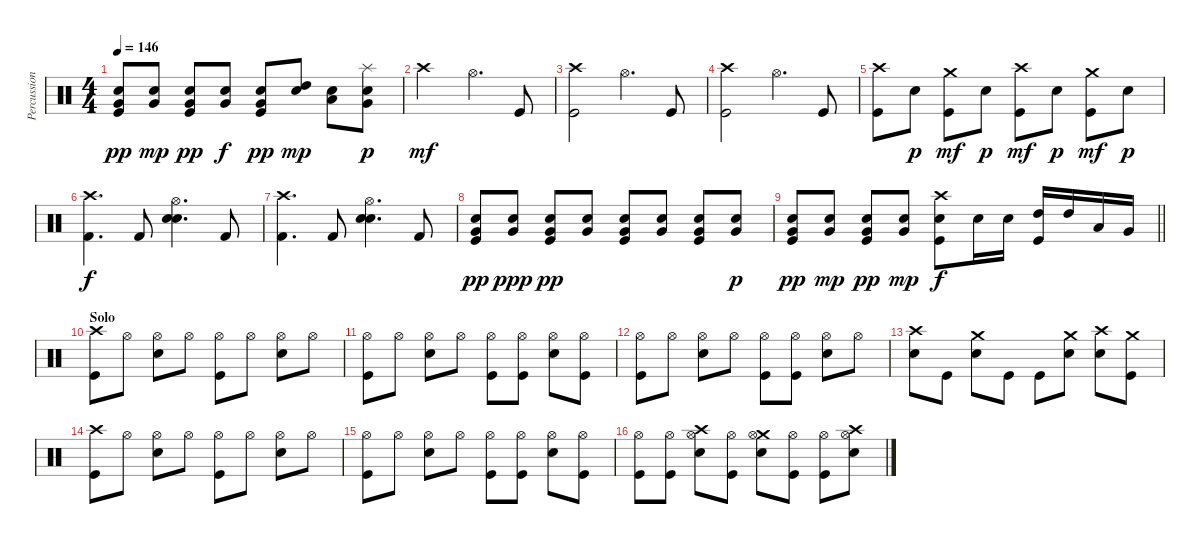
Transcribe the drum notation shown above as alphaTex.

\track ("Percussion" "Percussion") {instrument percussion}
\staff {score}
\articulation defaults
\ts (4 4)
\tempo 146
\clef neutral
\ks c
("Snare (hit) 2" "Very Low Tom (hit)" "Kick (hit)").8{dy pp} ("Snare (hit) 2" "Very Low Tom (hit)").8{dy mp} ("Snare (hit) 2" "Very Low Tom (hit)" "Kick (hit)").8{dy pp} ("Snare (hit) 2" "Very Low Tom (hit)").8{dy f} ("Snare (hit) 2" "Very Low Tom (hit)" "Kick (hit)").8{dy pp} ("Snare (hit) 2" "High Tom (hit)").8{dy mp} ("Snare (hit) 2" "Low Tom (hit)").8 ("Splash (hit)" "Snare (hit) 2" "Very Low Tom (hit)").8{dy p} |
"Crash high (hit)".2{dy mf} "Hi-Hat (open)".4{d} "Kick (hit)".8 |
("Crash high (hit)" "Kick (hit)").2 "Hi-Hat (open)".4{d} "Kick (hit)".8 |
("Crash high (hit)" "Kick (hit)").2 "Hi-Hat (open)".4{d} "Kick (hit)".8 |
("Crash high (hit)" "Kick (hit)").8 "Snare (hit) 2".8{dy p} ("Crash medium (hit)" "Kick (hit)").8{dy mf} "Snare (hit) 2".8{dy p} ("Crash high (hit)" "Kick (hit)").8{dy mf} "Snare (hit) 2".8{dy p} ("Crash medium (hit)" "Kick (hit)").8{dy mf} "Snare (hit) 2".8{dy p} |
("Crash high (hit)" "Kick (hit) 2").4{d dy f} "Kick (hit) 2".8 ("Hi-Hat (open)" "Snare (hit) 2" "Hand Clap (hit)").4{d} "Kick (hit) 2".8 |
("Crash high (hit)" "Kick (hit) 2").4{d} "Kick (hit) 2".8 ("Hi-Hat (open)" "Snare (hit) 2" "Hand Clap (hit)").4{d} "Kick (hit) 2".8 |
("Snare (hit) 2" "Very Low Tom (hit)" "Kick (hit)").8{dy pp} ("Snare (hit) 2" "Very Low Tom (hit)").8{dy ppp} ("Snare (hit) 2" "Very Low Tom (hit)" "Kick (hit)").8{dy pp} ("Snare (hit) 2" "Very Low Tom (hit)").8 ("Snare (hit) 2" "Very Low Tom (hit)" "Kick (hit)").8 ("Snare (hit) 2" "Very Low Tom (hit)").8 ("Snare (hit) 2" "Very Low Tom (hit)" "Kick (hit)").8 ("Snare (hit) 2" "Very Low Tom (hit)").8{dy p} |
\barLineRight lightlight
("Snare (hit) 2" "Very Low Tom (hit)" "Kick (hit)").8{dy pp} ("Snare (hit) 2" "Very Low Tom (hit)").8{dy mp} ("Snare (hit) 2" "Very Low Tom (hit)" "Kick (hit)").8{dy pp} ("Snare (hit) 2" "Very Low Tom (hit)").8{dy mp} ("Crash high (hit)" "Snare (hit) 2" "Kick (hit)").8{dy f} "Snare (hit) 2".16 "Snare (hit) 2".16 ("High Tom (hit)" "Kick (hit)").16 "High Tom (hit)".16 "Low Tom (hit)".16 "Very Low Tom (hit)".16 |
\section ("" "Solo")
("Crash high (hit)" "Kick (hit)").8 "Hi-Hat (open)".8 ("Hi-Hat (open)" "Snare (hit) 2").8 "Hi-Hat (open)".8 ("Hi-Hat (open)" "Kick (hit)").8 "Hi-Hat (open)".8 ("Hi-Hat (open)" "Snare (hit) 2").8 "Hi-Hat (open)".8 |
("Hi-Hat (open)" "Kick (hit)").8 "Hi-Hat (open)".8 ("Hi-Hat (open)" "Snare (hit) 2").8 "Hi-Hat (open)".8 ("Hi-Hat (open)" "Kick (hit)").8 ("Hi-Hat (open)" "Kick (hit)").8 ("Hi-Hat (open)" "Snare (hit) 2").8 ("Hi-Hat (open)" "Kick (hit)").8 |
("Hi-Hat (open)" "Kick (hit)").8 "Hi-Hat (open)".8 ("Hi-Hat (open)" "Snare (hit) 2").8 "Hi-Hat (open)".8 ("Hi-Hat (open)" "Kick (hit)").8 ("Hi-Hat (open)" "Kick (hit)").8 ("Hi-Hat (open)" "Snare (hit) 2").8 "Hi-Hat (open)".8 |
("Crash high (hit)" "Snare (hit) 2").8 "Kick (hit)".8 ("Crash medium (hit)" "Snare (hit) 2").8 "Kick (hit)".8 "Kick (hit)".8 ("Crash medium (hit)" "Snare (hit) 2").8 ("Crash high (hit)" "Snare (hit) 2").8 ("Crash medium (hit)" "Kick (hit)").8 |
("Crash high (hit)" "Kick (hit)").8 "Hi-Hat (open)".8 ("Hi-Hat (open)" "Snare (hit) 2").8 "Hi-Hat (open)".8 ("Hi-Hat (open)" "Kick (hit)").8 "Hi-Hat (open)".8 ("Hi-Hat (open)" "Snare (hit) 2").8 "Hi-Hat (open)".8 |
("Hi-Hat (open)" "Kick (hit)").8 "Hi-Hat (open)".8 ("Hi-Hat (open)" "Snare (hit) 2").8 "Hi-Hat (open)".8 ("Hi-Hat (open)" "Kick (hit)").8 ("Hi-Hat (open)" "Kick (hit)").8 ("Hi-Hat (open)" "Snare (hit) 2").8 ("Hi-Hat (open)" "Kick (hit)").8 |
("Hi-Hat (open)" "Kick (hit)").8 ("Hi-Hat (open)" "Kick (hit)").8 ("Crash high (hit)" "Hi-Hat (open)" "Snare (hit) 2").8 ("Hi-Hat (open)" "Kick (hit)").8 ("Crash medium (hit)" "Hi-Hat (open)" "Snare (hit) 2").8 ("Hi-Hat (open)" "Kick (hit)").8 ("Hi-Hat (open)" "Kick (hit)").8 ("Crash high (hit)" "Hi-Hat (open)" "Snare (hit) 2").8
